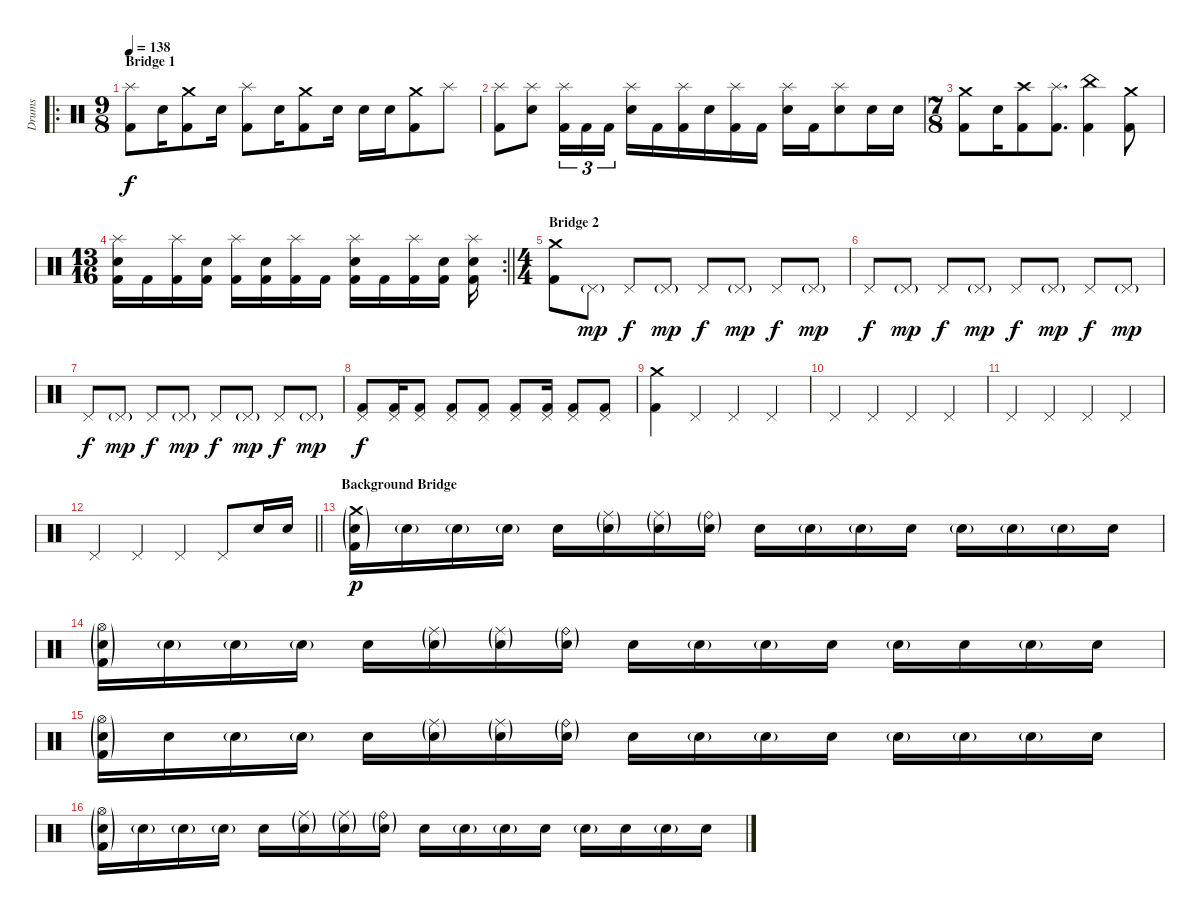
\track ("Drums" "Drums") {instrument percussion}
\staff {score}
\articulation defaults
\ro
\ts (9 8)
\section ("" "Bridge 1")
\tempo 138
\clef neutral
\ks c
("Splash (hit)" "Kick (hit) 2").8{dy f} "Snare (hit) 2".16 ("Crash medium (hit)" "Kick (hit) 2").8 "Snare (hit) 2".16 ("Splash (hit)" "Kick (hit) 2").8 "Snare (hit) 2".16 ("Crash medium (hit)" "Kick (hit) 2").8 "Snare (hit) 2".16 "Snare (hit) 2".16 "Snare (hit) 2".16 ("Crash medium (hit)" "Kick (hit) 2").8 "Splash (hit)".8 |
("Splash (hit)" "Kick (hit) 2").8 ("Splash (hit)" "Snare (hit) 2").8 ("Splash (hit)" "Kick (hit) 2").16{tu (3 2)} "Kick (hit) 2".16{tu (3 2)} "Kick (hit) 2".16{tu (3 2)} ("Splash (hit)" "Snare (hit) 2").16 "Kick (hit) 2".16 ("Splash (hit)" "Kick (hit) 2").16 "Snare (hit) 2".16 ("Splash (hit)" "Kick (hit) 2").16 "Kick (hit) 2".16 ("Splash (hit)" "Snare (hit) 2").16 "Kick (hit) 2".16 ("Splash (hit)" "Snare (hit) 2").8 "Snare (hit) 2".16 "Snare (hit) 2".16 |
\ts (7 8)
("Crash medium (hit)" "Kick (hit) 2").8 "Snare (hit) 2".16 ("Crash high (hit)" "Kick (hit) 2").8 ("Splash (hit)" "Kick (hit) 2").8{d} ("China (hit)" "Kick (hit) 2").4 ("Crash medium (hit)" "Kick (hit) 2").8 |
\rc 2
\ts (13 16)
\barLineRight lightlight
("Splash (hit)" "Snare (hit) 2" "Kick (hit) 2").16 "Kick (hit) 2".16 ("Splash (hit)" "Kick (hit) 2").16 ("Snare (hit) 2" "Kick (hit) 2").16 ("Splash (hit)" "Kick (hit) 2").16 ("Snare (hit) 2" "Kick (hit) 2").16 ("Splash (hit)" "Kick (hit) 2").16 "Kick (hit) 2".16 ("Splash (hit)" "Snare (hit) 2" "Kick (hit) 2").16 "Kick (hit) 2".16 ("Splash (hit)" "Kick (hit) 2").16 ("Snare (hit) 2" "Kick (hit) 2").16 ("Splash (hit)" "Snare (hit) 2" "Kick (hit) 2").16 |
\ts (4 4)
\section ("" "Bridge 2")
("Crash medium (hit)" "Kick (hit) 2").8 "Pedal Hi-Hat (hit)"{g}.8{dy mp} "Pedal Hi-Hat (hit)".8{dy f} "Pedal Hi-Hat (hit)"{g}.8{dy mp} "Pedal Hi-Hat (hit)".8{dy f} "Pedal Hi-Hat (hit)"{g}.8{dy mp} "Pedal Hi-Hat (hit)".8{dy f} "Pedal Hi-Hat (hit)"{g}.8{dy mp} |
"Pedal Hi-Hat (hit)".8{dy f} "Pedal Hi-Hat (hit)"{g}.8{dy mp} "Pedal Hi-Hat (hit)".8{dy f} "Pedal Hi-Hat (hit)"{g}.8{dy mp} "Pedal Hi-Hat (hit)".8{dy f} "Pedal Hi-Hat (hit)"{g}.8{dy mp} "Pedal Hi-Hat (hit)".8{dy f} "Pedal Hi-Hat (hit)"{g}.8{dy mp} |
"Pedal Hi-Hat (hit)".8{dy f} "Pedal Hi-Hat (hit)"{g}.8{dy mp} "Pedal Hi-Hat (hit)".8{dy f} "Pedal Hi-Hat (hit)"{g}.8{dy mp} "Pedal Hi-Hat (hit)".8{dy f} "Pedal Hi-Hat (hit)"{g}.8{dy mp} "Pedal Hi-Hat (hit)".8{dy f} "Pedal Hi-Hat (hit)"{g}.8{dy mp} |
("Pedal Hi-Hat (hit)" "Kick (hit) 2").8{dy f} ("Pedal Hi-Hat (hit)" "Kick (hit) 2").16 ("Pedal Hi-Hat (hit)" "Kick (hit) 2").8 ("Pedal Hi-Hat (hit)" "Kick (hit) 2").8 ("Pedal Hi-Hat (hit)" "Kick (hit) 2").8 ("Pedal Hi-Hat (hit)" "Kick (hit) 2").8 ("Pedal Hi-Hat (hit)" "Kick (hit) 2").16 ("Pedal Hi-Hat (hit)" "Kick (hit) 2").8 ("Pedal Hi-Hat (hit)" "Kick (hit) 2").8 |
("Crash medium (hit)" "Kick (hit) 2").4 "Pedal Hi-Hat (hit)".4 "Pedal Hi-Hat (hit)".4 "Pedal Hi-Hat (hit)".4 |
"Pedal Hi-Hat (hit)".4 "Pedal Hi-Hat (hit)".4 "Pedal Hi-Hat (hit)".4 "Pedal Hi-Hat (hit)".4 |
"Pedal Hi-Hat (hit)".4 "Pedal Hi-Hat (hit)".4 "Pedal Hi-Hat (hit)".4 "Pedal Hi-Hat (hit)".4 |
\barLineRight lightlight "Pedal Hi-Hat (hit)".4 "Pedal Hi-Hat (hit)".4 "Pedal Hi-Hat (hit)".4 "Pedal Hi-Hat (hit)".8 "Snare (hit) 2".16 "Snare (hit) 2".16
|
\section ("" "Background Bridge")
("Crash medium (hit)"{g} "Snare (hit) 2"{g} "Kick (hit) 2"{g}).16{dy p} "Snare (hit) 2"{g}.16 "Snare (hit) 2"{g}.16 "Snare (hit) 2"{g}.16 "Snare (hit) 2".16 ("Ride (middle)"{g} "Snare (hit) 2"{g}).16 ("Ride (middle)"{g} "Snare (hit) 2"{g}).16 ("Ride (bell)"{g} "Snare (hit) 2"{g}).16 "Snare (hit) 2".16 "Snare (hit) 2"{g}.16 "Snare (hit) 2"{g}.16 "Snare (hit) 2".16 "Snare (hit) 2"{g}.16 "Snare (hit) 2"{g}.16 "Snare (hit) 2"{g}.16 "Snare (hit) 2".16 |
("Hi-Hat (open)"{g} "Snare (hit) 2"{g} "Kick (hit) 2"{g}).16 "Snare (hit) 2"{g}.16 "Snare (hit) 2"{g}.16 "Snare (hit) 2"{g}.16 "Snare (hit) 2".16 ("Ride (middle)"{g} "Snare (hit) 2"{g}).16 ("Ride (middle)"{g} "Snare (hit) 2"{g}).16 ("Ride (bell)"{g} "Snare (hit) 2"{g}).16 "Snare (hit) 2".16 "Snare (hit) 2"{g}.16 "Snare (hit) 2"{g}.16 "Snare (hit) 2".16 "Snare (hit) 2"{g}.16 "Snare (hit) 2".16 "Snare (hit) 2"{g}.16 "Snare (hit) 2".16 |
("Hi-Hat (open)"{g} "Snare (hit) 2"{g} "Kick (hit) 2"{g}).16 "Snare (hit) 2".16 "Snare (hit) 2"{g}.16 "Snare (hit) 2"{g}.16 "Snare (hit) 2".16 ("Ride (middle)"{g} "Snare (hit) 2"{g}).16 ("Ride (middle)"{g} "Snare (hit) 2"{g}).16 ("Ride (bell)"{g} "Snare (hit) 2"{g}).16 "Snare (hit) 2".16 "Snare (hit) 2"{g}.16 "Snare (hit) 2"{g}.16 "Snare (hit) 2".16 "Snare (hit) 2"{g}.16 "Snare (hit) 2"{g}.16 "Snare (hit) 2"{g}.16 "Snare (hit) 2".16 |
("Hi-Hat (open)"{g} "Snare (hit) 2"{g} "Kick (hit) 2"{g}).16 "Snare (hit) 2"{g}.16 "Snare (hit) 2"{g}.16 "Snare (hit) 2"{g}.16 "Snare (hit) 2".16 ("Ride (middle)"{g} "Snare (hit) 2"{g}).16 ("Ride (middle)"{g} "Snare (hit) 2"{g}).16 ("Ride (bell)"{g} "Snare (hit) 2"{g}).16 "Snare (hit) 2".16 "Snare (hit) 2"{g}.16 "Snare (hit) 2"{g}.16 "Snare (hit) 2".16 "Snare (hit) 2"{g}.16 "Snare (hit) 2".16 "Snare (hit) 2"{g}.16 "Snare (hit) 2".16
